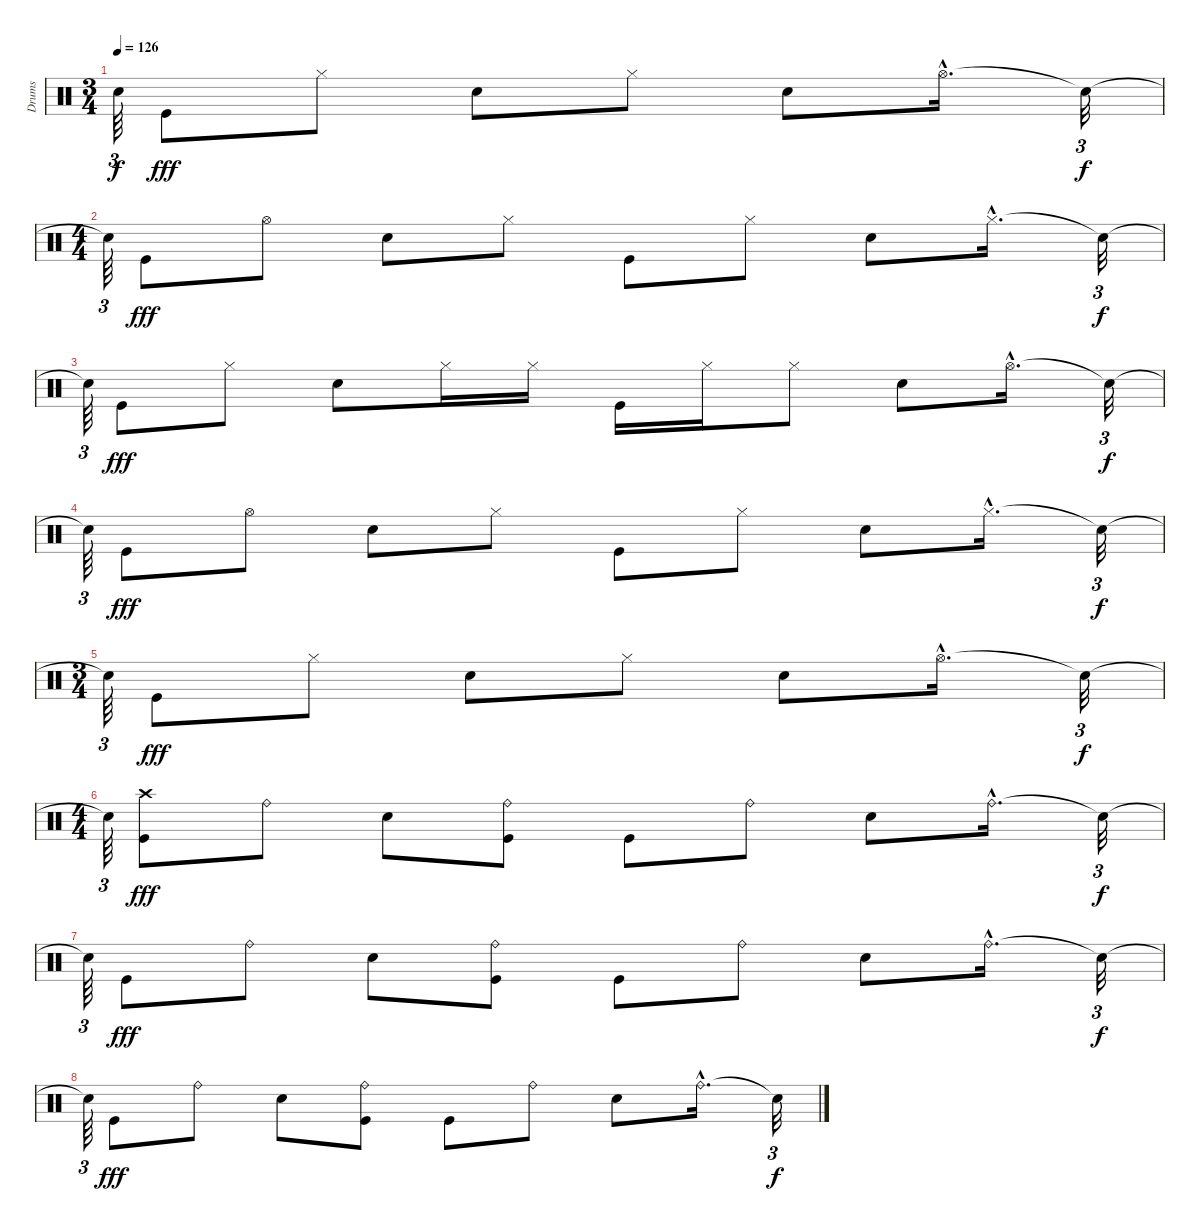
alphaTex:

\track ("Drums" "Drums") {instrument percussion}
\staff {score}
\articulation defaults
\ts (3 4)
\tempo 126
\clef neutral
\ks c "Snare (hit)"{t}.64{tu (3 2) dy f} "Kick (hit)".8{dy fff} "Hi-Hat (closed)".8 "Snare (hit) 2".8 "Hi-Hat (closed)".8 "Snare (hit) 2".8 "Hi-Hat (open)"{hac}.16{d} "Snare (hit)"{t}.32{tu (3 2) dy f}
|
\ts (4 4)
"Snare (hit)"{t}.64{tu (3 2)} "Kick (hit)".8{dy fff} "Hi-Hat (open)".8 "Snare (hit) 2".8 "Hi-Hat (closed)".8 "Kick (hit)".8 "Hi-Hat (closed)".8 "Snare (hit) 2".8 "Hi-Hat (closed)"{hac}.16{d} "Snare (hit)"{t}.32{tu (3 2) dy f} |
"Snare (hit)"{t}.64{tu (3 2)} "Kick (hit)".8{dy fff} "Hi-Hat (closed)".8 "Snare (hit) 2".8 "Hi-Hat (closed)".16 "Hi-Hat (closed)".16 "Kick (hit)".16 "Hi-Hat (closed)".16 "Hi-Hat (closed)".8 "Snare (hit) 2".8 "Hi-Hat (open)"{hac}.16{d} "Snare (hit)"{t}.32{tu (3 2) dy f} |
"Snare (hit)"{t}.64{tu (3 2)} "Kick (hit)".8{dy fff} "Hi-Hat (open)".8 "Snare (hit) 2".8 "Hi-Hat (closed)".8 "Kick (hit)".8 "Hi-Hat (closed)".8 "Snare (hit) 2".8 "Hi-Hat (closed)"{hac}.16{d} "Snare (hit)"{t}.32{tu (3 2) dy f} |
\ts (3 4)
"Snare (hit)"{t}.64{tu (3 2)} "Kick (hit)".8{dy fff} "Hi-Hat (closed)".8 "Snare (hit) 2".8 "Hi-Hat (closed)".8 "Snare (hit) 2".8 "Hi-Hat (open)"{hac}.16{d} "Snare (hit)"{t}.32{tu (3 2) dy f} |
\ts (4 4)
"Snare (hit)"{t}.64{tu (3 2)} ("Kick (hit)" "Crash high (hit)").8{dy fff} "Ride (bell)".8 "Snare (hit) 2".8 ("Kick (hit)" "Ride (bell)").8 "Kick (hit)".8 "Ride (bell)".8 "Snare (hit) 2".8 "Ride (bell)"{hac}.16{d} "Snare (hit)"{t}.32{tu (3 2) dy f} |
"Snare (hit)"{t}.64{tu (3 2)} "Kick (hit)".8{dy fff} "Ride (bell)".8 "Snare (hit) 2".8 ("Kick (hit)" "Ride (bell)").8 "Kick (hit)".8 "Ride (bell)".8 "Snare (hit) 2".8 "Ride (bell)"{hac}.16{d} "Snare (hit)"{t}.32{tu (3 2) dy f} |
"Snare (hit)"{t}.64{tu (3 2)} "Kick (hit)".8{dy fff} "Ride (bell)".8 "Snare (hit) 2".8 ("Kick (hit)" "Ride (bell)").8 "Kick (hit)".8 "Ride (bell)".8 "Snare (hit) 2".8 "Ride (bell)"{hac}.16{d} "Snare (hit)"{t}.32{tu (3 2) dy f}
